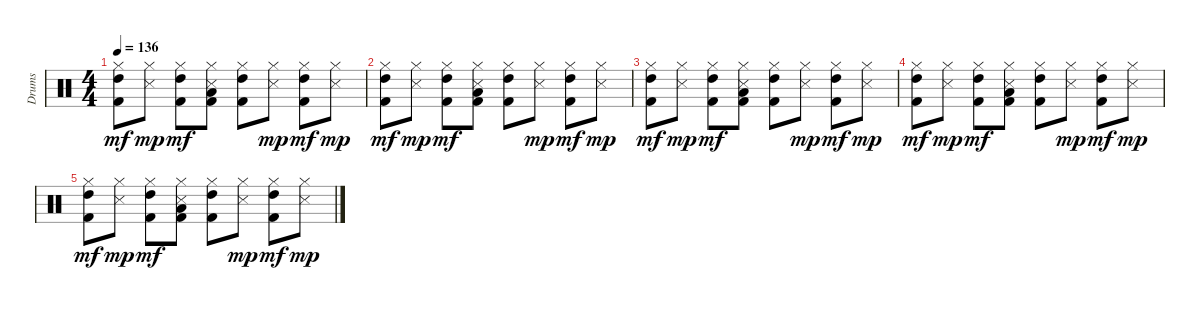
\track ("Drums" "Drums") {instrument percussion}
\staff {score}
\articulation defaults
\ts (4 4)
\tempo 136
\clef neutral
\ks c
("Hi-Hat (closed)" "High Tom (hit)" "Kick (hit) 2").8{dy mf} ("Hi-Hat (closed)" "Metronome (hit)").8{dy mp} ("Hi-Hat (closed)" "High Tom (hit)" "Kick (hit) 2").8{dy mf} ("Hi-Hat (closed)" "Metronome (hit)" "Low Floor Tom (hit)" "Kick (hit) 2").8 ("Hi-Hat (closed)" "High Tom (hit)" "Kick (hit) 2").8{volume 5} ("Hi-Hat (closed)" "Metronome (hit)").8{dy mp} ("Hi-Hat (closed)" "High Tom (hit)" "Kick (hit) 2").8{dy mf} ("Hi-Hat (closed)" "Metronome (hit)").8{dy mp} |
("Hi-Hat (closed)" "High Tom (hit)" "Kick (hit) 2").8{dy mf} ("Hi-Hat (closed)" "Metronome (hit)").8{dy mp} ("Hi-Hat (closed)" "High Tom (hit)" "Kick (hit) 2").8{dy mf} ("Hi-Hat (closed)" "Metronome (hit)" "Low Floor Tom (hit)" "Kick (hit) 2").8 ("Hi-Hat (closed)" "High Tom (hit)" "Kick (hit) 2").8{volume 4} ("Hi-Hat (closed)" "Metronome (hit)").8{dy mp} ("Hi-Hat (closed)" "High Tom (hit)" "Kick (hit) 2").8{dy mf} ("Hi-Hat (closed)" "Metronome (hit)").8{dy mp} |
("Hi-Hat (closed)" "High Tom (hit)" "Kick (hit) 2").8{dy mf} ("Hi-Hat (closed)" "Metronome (hit)").8{dy mp} ("Hi-Hat (closed)" "High Tom (hit)" "Kick (hit) 2").8{dy mf} ("Hi-Hat (closed)" "Metronome (hit)" "Low Floor Tom (hit)" "Kick (hit) 2").8 ("Hi-Hat (closed)" "High Tom (hit)" "Kick (hit) 2").8{volume 3} ("Hi-Hat (closed)" "Metronome (hit)").8{dy mp} ("Hi-Hat (closed)" "High Tom (hit)" "Kick (hit) 2").8{dy mf} ("Hi-Hat (closed)" "Metronome (hit)").8{dy mp} |
("Hi-Hat (closed)" "High Tom (hit)" "Kick (hit) 2").8{dy mf} ("Hi-Hat (closed)" "Metronome (hit)").8{dy mp} ("Hi-Hat (closed)" "High Tom (hit)" "Kick (hit) 2").8{dy mf} ("Hi-Hat (closed)" "Metronome (hit)" "Low Floor Tom (hit)" "Kick (hit) 2").8 ("Hi-Hat (closed)" "High Tom (hit)" "Kick (hit) 2").8{volume 2} ("Hi-Hat (closed)" "Metronome (hit)").8{dy mp} ("Hi-Hat (closed)" "High Tom (hit)" "Kick (hit) 2").8{dy mf} ("Hi-Hat (closed)" "Metronome (hit)").8{dy mp} |
("Hi-Hat (closed)" "High Tom (hit)" "Kick (hit) 2").8{dy mf} ("Hi-Hat (closed)" "Metronome (hit)").8{dy mp} ("Hi-Hat (closed)" "High Tom (hit)" "Kick (hit) 2").8{dy mf} ("Hi-Hat (closed)" "Metronome (hit)" "Low Floor Tom (hit)" "Kick (hit) 2").8 ("Hi-Hat (closed)" "High Tom (hit)" "Kick (hit) 2").8{volume 0} ("Hi-Hat (closed)" "Metronome (hit)").8{dy mp} ("Hi-Hat (closed)" "High Tom (hit)" "Kick (hit) 2").8{dy mf} ("Hi-Hat (closed)" "Metronome (hit)").8{dy mp}
